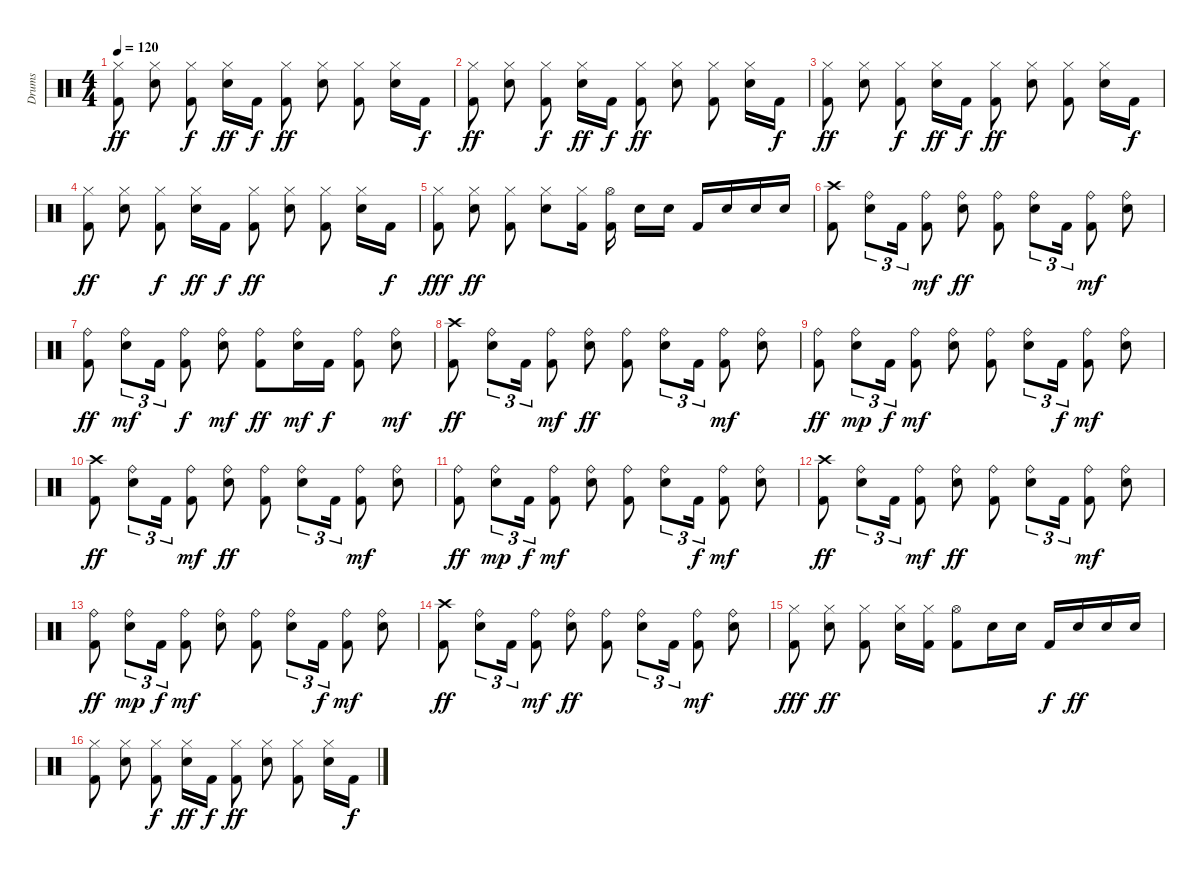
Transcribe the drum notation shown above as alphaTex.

\track ("Drums" "Drums") {instrument percussion}
\staff {score}
\articulation defaults
\ts (4 4)
\tempo 120
\clef neutral
\ks c
("Kick (hit) 2" "Hi-Hat (closed)").8{dy ff beam split} ("Snare (hit) 2" "Hi-Hat (closed)").8 ("Kick (hit) 2" "Hi-Hat (closed)").8{dy f beam split} ("Snare (hit) 2" "Hi-Hat (closed)").16{dy ff} "Kick (hit) 2".16{dy f} ("Kick (hit) 2" "Hi-Hat (closed)").8{dy ff beam split} ("Snare (hit) 2" "Hi-Hat (closed)").8 ("Kick (hit) 2" "Hi-Hat (closed)").8{beam split} ("Snare (hit) 2" "Hi-Hat (closed)").16 "Kick (hit) 2".16{dy f} |
("Kick (hit) 2" "Hi-Hat (closed)").8{dy ff beam split} ("Snare (hit) 2" "Hi-Hat (closed)").8 ("Kick (hit) 2" "Hi-Hat (closed)").8{dy f beam split} ("Snare (hit) 2" "Hi-Hat (closed)").16{dy ff} "Kick (hit) 2".16{dy f} ("Kick (hit) 2" "Hi-Hat (closed)").8{dy ff beam split} ("Snare (hit) 2" "Hi-Hat (closed)").8 ("Kick (hit) 2" "Hi-Hat (closed)").8{beam split} ("Snare (hit) 2" "Hi-Hat (closed)").16 "Kick (hit) 2".16{dy f} |
("Kick (hit) 2" "Hi-Hat (closed)").8{dy ff beam split} ("Snare (hit) 2" "Hi-Hat (closed)").8 ("Kick (hit) 2" "Hi-Hat (closed)").8{dy f beam split} ("Snare (hit) 2" "Hi-Hat (closed)").16{dy ff} "Kick (hit) 2".16{dy f} ("Kick (hit) 2" "Hi-Hat (closed)").8{dy ff beam split} ("Snare (hit) 2" "Hi-Hat (closed)").8 ("Kick (hit) 2" "Hi-Hat (closed)").8{beam split} ("Snare (hit) 2" "Hi-Hat (closed)").16 "Kick (hit) 2".16{dy f} |
("Kick (hit) 2" "Hi-Hat (closed)").8{dy ff beam split} ("Snare (hit) 2" "Hi-Hat (closed)").8 ("Kick (hit) 2" "Hi-Hat (closed)").8{dy f beam split} ("Snare (hit) 2" "Hi-Hat (closed)").16{dy ff} "Kick (hit) 2".16{dy f} ("Kick (hit) 2" "Hi-Hat (closed)").8{dy ff beam split} ("Snare (hit) 2" "Hi-Hat (closed)").8 ("Kick (hit) 2" "Hi-Hat (closed)").8{beam split} ("Snare (hit) 2" "Hi-Hat (closed)").16 "Kick (hit) 2".16{dy f} |
("Kick (hit) 2" "Hi-Hat (closed)").8{dy fff beam split} ("Snare (hit) 2" "Hi-Hat (closed)").8{dy ff} ("Kick (hit) 2" "Hi-Hat (closed)").8{beam split} ("Snare (hit) 2" "Hi-Hat (closed)").8{beam merge} ("Kick (hit) 2" "Hi-Hat (closed)").16{beam split} ("Kick (hit) 2" "Hi-Hat (open)").16{beam split} "Snare (hit) 2".16 "Snare (hit) 2".16 "Kick (hit) 2".16 "Snare (hit) 2".16 "Snare (hit) 2".16 "Snare (hit) 2".16 |
("Kick (hit) 2" "Crash high (hit)").8{beam split} ("Snare (hit) 2" "Ride (bell)").8{tu (3 2) beam merge} "Kick (hit) 2".16{tu (3 2)} ("Kick (hit) 2" "Ride (bell)").8{dy mf beam split} ("Snare (hit) 2" "Ride (bell)").8{dy ff} ("Kick (hit) 2" "Ride (bell)").8{beam split} ("Snare (hit) 2" "Ride (bell)").8{tu (3 2) beam merge} "Kick (hit) 2".16{tu (3 2) beam split} ("Kick (hit) 2" "Ride (bell)").8{dy mf beam split} ("Snare (hit) 2" "Ride (bell)").8 |
("Kick (hit) 2" "Ride (bell)").8{dy ff beam split} ("Snare (hit) 2" "Ride (bell)").8{tu (3 2) dy mf beam merge} "Kick (hit) 2".16{tu (3 2) beam split} ("Kick (hit) 2" "Ride (bell)").8{dy f beam split} ("Snare (hit) 2" "Ride (bell)").8{dy mf} ("Kick (hit) 2" "Ride (bell)").8{dy ff} ("Snare (hit) 2" "Ride (bell)").16{dy mf beam merge} "Kick (hit) 2".16{dy f} ("Kick (hit) 2" "Ride (bell)").8{beam split} ("Snare (hit) 2" "Ride (bell)").8{dy mf} |
("Kick (hit) 2" "Crash high (hit)").8{dy ff beam split} ("Snare (hit) 2" "Ride (bell)").8{tu (3 2) beam merge} "Kick (hit) 2".16{tu (3 2)} ("Kick (hit) 2" "Ride (bell)").8{dy mf beam split} ("Snare (hit) 2" "Ride (bell)").8{dy ff} ("Kick (hit) 2" "Ride (bell)").8{beam split} ("Snare (hit) 2" "Ride (bell)").8{tu (3 2) beam merge} "Kick (hit) 2".16{tu (3 2) beam split} ("Kick (hit) 2" "Ride (bell)").8{dy mf beam split} ("Snare (hit) 2" "Ride (bell)").8 |
("Kick (hit) 2" "Ride (bell)").8{dy ff beam split} ("Snare (hit) 2" "Ride (bell)").8{tu (3 2) dy mp} "Kick (hit) 2".16{tu (3 2) dy f} ("Kick (hit) 2" "Ride (bell)").8{dy mf beam split} ("Snare (hit) 2" "Ride (bell)").8 ("Kick (hit) 2" "Ride (bell)").8 ("Snare (hit) 2" "Ride (bell)").8{tu (3 2)} "Kick (hit) 2".16{tu (3 2) dy f} ("Kick (hit) 2" "Ride (bell)").8{dy mf beam split} ("Snare (hit) 2" "Ride (bell)").8 |
("Kick (hit) 2" "Crash high (hit)").8{dy ff beam split} ("Snare (hit) 2" "Ride (bell)").8{tu (3 2) beam merge} "Kick (hit) 2".16{tu (3 2)} ("Kick (hit) 2" "Ride (bell)").8{dy mf beam split} ("Snare (hit) 2" "Ride (bell)").8{dy ff} ("Kick (hit) 2" "Ride (bell)").8{beam split} ("Snare (hit) 2" "Ride (bell)").8{tu (3 2) beam merge} "Kick (hit) 2".16{tu (3 2) beam split} ("Kick (hit) 2" "Ride (bell)").8{dy mf beam split} ("Snare (hit) 2" "Ride (bell)").8 |
("Kick (hit) 2" "Ride (bell)").8{dy ff beam split} ("Snare (hit) 2" "Ride (bell)").8{tu (3 2) dy mp} "Kick (hit) 2".16{tu (3 2) dy f} ("Kick (hit) 2" "Ride (bell)").8{dy mf beam split} ("Snare (hit) 2" "Ride (bell)").8 ("Kick (hit) 2" "Ride (bell)").8 ("Snare (hit) 2" "Ride (bell)").8{tu (3 2)} "Kick (hit) 2".16{tu (3 2) dy f} ("Kick (hit) 2" "Ride (bell)").8{dy mf beam split} ("Snare (hit) 2" "Ride (bell)").8 |
("Kick (hit) 2" "Crash high (hit)").8{dy ff beam split} ("Snare (hit) 2" "Ride (bell)").8{tu (3 2) beam merge} "Kick (hit) 2".16{tu (3 2)} ("Kick (hit) 2" "Ride (bell)").8{dy mf beam split} ("Snare (hit) 2" "Ride (bell)").8{dy ff} ("Kick (hit) 2" "Ride (bell)").8{beam split} ("Snare (hit) 2" "Ride (bell)").8{tu (3 2) beam merge} "Kick (hit) 2".16{tu (3 2) beam split} ("Kick (hit) 2" "Ride (bell)").8{dy mf beam split} ("Snare (hit) 2" "Ride (bell)").8 |
("Kick (hit) 2" "Ride (bell)").8{dy ff beam split} ("Snare (hit) 2" "Ride (bell)").8{tu (3 2) dy mp} "Kick (hit) 2".16{tu (3 2) dy f} ("Kick (hit) 2" "Ride (bell)").8{dy mf beam split} ("Snare (hit) 2" "Ride (bell)").8 ("Kick (hit) 2" "Ride (bell)").8 ("Snare (hit) 2" "Ride (bell)").8{tu (3 2)} "Kick (hit) 2".16{tu (3 2) dy f} ("Kick (hit) 2" "Ride (bell)").8{dy mf beam split} ("Snare (hit) 2" "Ride (bell)").8 |
("Kick (hit) 2" "Crash high (hit)").8{dy ff beam split} ("Snare (hit) 2" "Ride (bell)").8{tu (3 2) beam merge} "Kick (hit) 2".16{tu (3 2)} ("Kick (hit) 2" "Ride (bell)").8{dy mf beam split} ("Snare (hit) 2" "Ride (bell)").8{dy ff} ("Kick (hit) 2" "Ride (bell)").8{beam split} ("Snare (hit) 2" "Ride (bell)").8{tu (3 2) beam merge} "Kick (hit) 2".16{tu (3 2) beam split} ("Kick (hit) 2" "Ride (bell)").8{dy mf beam split} ("Snare (hit) 2" "Ride (bell)").8 |
("Kick (hit) 2" "Hi-Hat (closed)").8{dy fff beam split} ("Snare (hit) 2" "Hi-Hat (closed)").8{dy ff} ("Kick (hit) 2" "Hi-Hat (closed)").8{beam split} ("Snare (hit) 2" "Hi-Hat (closed)").16{beam merge} ("Kick (hit) 2" "Hi-Hat (closed)").16 ("Kick (hit) 2" "Hi-Hat (open)").8 "Snare (hit) 2".16{beam merge} "Snare (hit) 2".16 "Kick (hit) 2".16{dy f beam merge} "Snare (hit) 2".16{dy ff} "Snare (hit) 2".16{beam merge} "Snare (hit) 2".16 |
("Kick (hit) 2" "Hi-Hat (closed)").8{beam split} ("Snare (hit) 2" "Hi-Hat (closed)").8 ("Kick (hit) 2" "Hi-Hat (closed)").8{dy f beam split} ("Snare (hit) 2" "Hi-Hat (closed)").16{dy ff} "Kick (hit) 2".16{dy f} ("Kick (hit) 2" "Hi-Hat (closed)").8{dy ff beam split} ("Snare (hit) 2" "Hi-Hat (closed)").8 ("Kick (hit) 2" "Hi-Hat (closed)").8{beam split} ("Snare (hit) 2" "Hi-Hat (closed)").16 "Kick (hit) 2".16{dy f}
